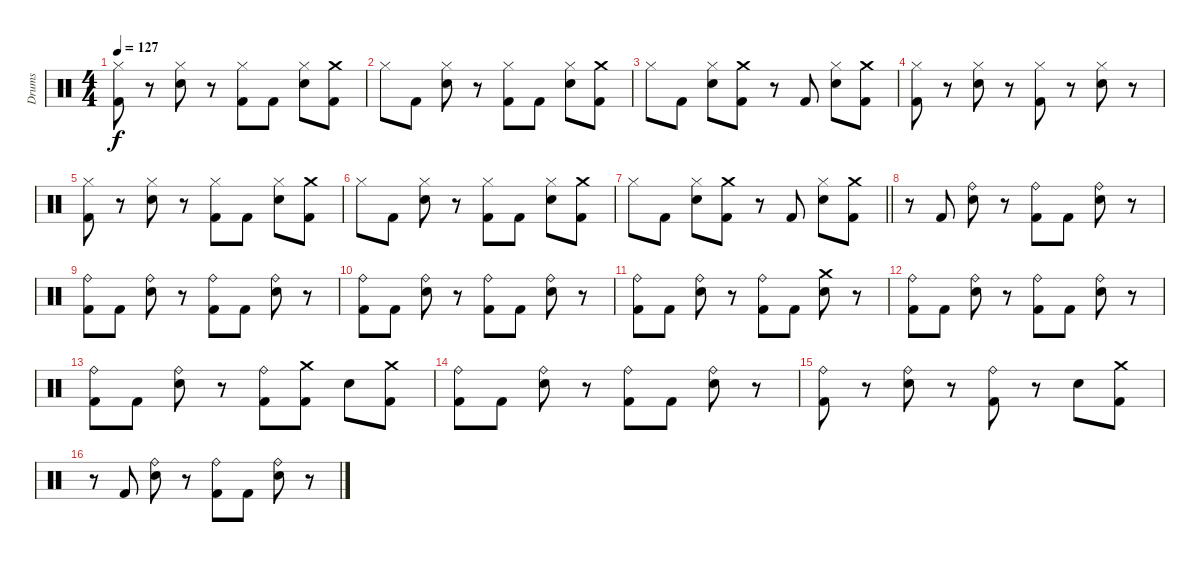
\track ("Drums" "Drums") {instrument percussion}
\staff {score}
\articulation defaults
\ts (4 4)
\tempo 127
\clef neutral
\ks c
("Hi-Hat (closed)" "Kick (hit) 2").8{dy f} r.8 ("Hi-Hat (closed)" "Snare (hit) 2").8 r.8 ("Hi-Hat (closed)" "Kick (hit) 2").8 "Kick (hit) 2".8 ("Hi-Hat (closed)" "Snare (hit) 2").8 ("Crash medium (hit)" "Kick (hit) 2").8 |
"Hi-Hat (closed)".8 "Kick (hit) 2".8 ("Hi-Hat (closed)" "Snare (hit) 2").8 r.8 ("Hi-Hat (closed)" "Kick (hit) 2").8 "Kick (hit) 2".8 ("Hi-Hat (closed)" "Snare (hit) 2").8 ("Crash medium (hit)" "Kick (hit) 2").8 |
"Hi-Hat (closed)".8 "Kick (hit) 2".8 ("Hi-Hat (closed)" "Snare (hit) 2").8 ("Crash medium (hit)" "Kick (hit) 2").8 r.8 "Kick (hit) 2".8 ("Hi-Hat (closed)" "Snare (hit) 2").8 ("Crash medium (hit)" "Kick (hit) 2").8 |
("Hi-Hat (closed)" "Kick (hit) 2").8 r.8 ("Hi-Hat (closed)" "Snare (hit) 2").8 r.8 ("Hi-Hat (closed)" "Kick (hit) 2").8 r.8 ("Hi-Hat (closed)" "Snare (hit) 2").8 r.8 |
("Hi-Hat (closed)" "Kick (hit) 2").8 r.8 ("Hi-Hat (closed)" "Snare (hit) 2").8 r.8 ("Hi-Hat (closed)" "Kick (hit) 2").8 "Kick (hit) 2".8 ("Hi-Hat (closed)" "Snare (hit) 2").8 ("Crash medium (hit)" "Kick (hit) 2").8 |
"Hi-Hat (closed)".8 "Kick (hit) 2".8 ("Hi-Hat (closed)" "Snare (hit) 2").8 r.8 ("Hi-Hat (closed)" "Kick (hit) 2").8 "Kick (hit) 2".8 ("Hi-Hat (closed)" "Snare (hit) 2").8 ("Crash medium (hit)" "Kick (hit) 2").8 |
\barLineRight lightlight "Hi-Hat (closed)".8 "Kick (hit) 2".8
("Hi-Hat (closed)" "Snare (hit) 2").8 ("Crash medium (hit)" "Kick (hit) 2").8 r.8 "Kick (hit) 2".8 ("Hi-Hat (closed)" "Snare (hit) 2").8 ("Crash medium (hit)" "Kick (hit) 2").8 |
r.8 "Kick (hit) 2".8 ("Ride (bell)" "Snare (hit) 2").8 r.8 ("Ride (bell)" "Kick (hit) 2").8 "Kick (hit) 2".8 ("Ride (bell)" "Snare (hit) 2").8 r.8 |
("Ride (bell)" "Kick (hit) 2").8 "Kick (hit) 2".8 ("Ride (bell)" "Snare (hit) 2").8 r.8 ("Ride (bell)" "Kick (hit) 2").8 "Kick (hit) 2".8 ("Ride (bell)" "Snare (hit) 2").8 r.8 |
("Ride (bell)" "Kick (hit) 2").8 "Kick (hit) 2".8 ("Ride (bell)" "Snare (hit) 2").8 r.8 ("Ride (bell)" "Kick (hit) 2").8 "Kick (hit) 2".8 ("Ride (bell)" "Snare (hit) 2").8 r.8 |
("Ride (bell)" "Kick (hit) 2").8 "Kick (hit) 2".8 ("Ride (bell)" "Snare (hit) 2").8 r.8 ("Ride (bell)" "Kick (hit) 2").8 "Kick (hit) 2".8 ("Crash medium (hit)" "Snare (hit) 2").8 r.8 |
("Ride (bell)" "Kick (hit) 2").8 "Kick (hit) 2".8 ("Ride (bell)" "Snare (hit) 2").8 r.8 ("Ride (bell)" "Kick (hit) 2").8 "Kick (hit) 2".8 ("Ride (bell)" "Snare (hit) 2").8 r.8 |
("Ride (bell)" "Kick (hit) 2").8 "Kick (hit) 2".8 ("Ride (bell)" "Snare (hit) 2").8 r.8 ("Ride (bell)" "Kick (hit) 2").8 ("Crash medium (hit)" "Kick (hit) 2").8 "Snare (hit) 2".8 ("Crash medium (hit)" "Kick (hit) 2").8 |
("Ride (bell)" "Kick (hit) 2").8 "Kick (hit) 2".8 ("Ride (bell)" "Snare (hit) 2").8 r.8 ("Ride (bell)" "Kick (hit) 2").8 "Kick (hit) 2".8 ("Ride (bell)" "Snare (hit) 2").8 r.8 |
("Ride (bell)" "Kick (hit) 2").8 r.8 ("Ride (bell)" "Snare (hit) 2").8 r.8 ("Ride (bell)" "Kick (hit) 2").8 r.8 "Snare (hit) 2".8 ("Crash medium (hit)" "Kick (hit) 2").8 |
r.8 "Kick (hit) 2".8 ("Ride (bell)" "Snare (hit) 2").8 r.8 ("Ride (bell)" "Kick (hit) 2").8 "Kick (hit) 2".8 ("Ride (bell)" "Snare (hit) 2").8 r.8
